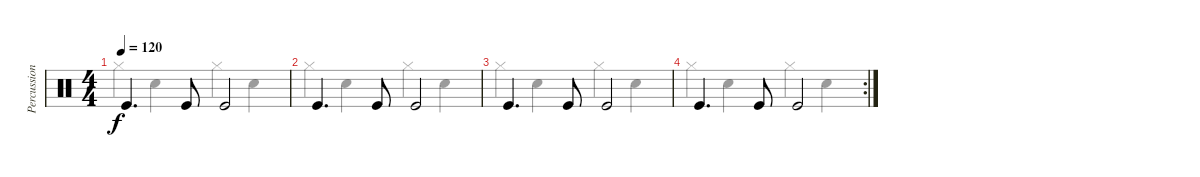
\track ("Percussion" "Percussion") {instrument percussion}
\staff {score}
\articulation defaults
\voice
\ts (4 4)
\tempo 120
\clef neutral
\ks c "Kick (hit)".4{d dy f} "Kick (hit)".8 "Kick (hit)".2
|
"Kick (hit)".4{d} "Kick (hit)".8 "Kick (hit)".2 |
"Kick (hit)".4{d} "Kick (hit)".8 "Kick (hit)".2 |
\rc 2 "Kick (hit)".4{d} "Kick (hit)".8 "Kick (hit)".2
\voice
\clef neutral
\ottava regular
\simile none
\ks c "Hi-Hat (closed)".4{dy f} "Snare (hit) 2".4 "Hi-Hat (closed)".4 "Snare (hit) 2".4
|
"Hi-Hat (closed)".4 "Snare (hit) 2".4 "Hi-Hat (closed)".4 "Snare (hit) 2".4 |
"Hi-Hat (closed)".4 "Snare (hit) 2".4 "Hi-Hat (closed)".4 "Snare (hit) 2".4 |
"Hi-Hat (closed)".4 "Snare (hit) 2".4 "Hi-Hat (closed)".4 "Snare (hit) 2".4
